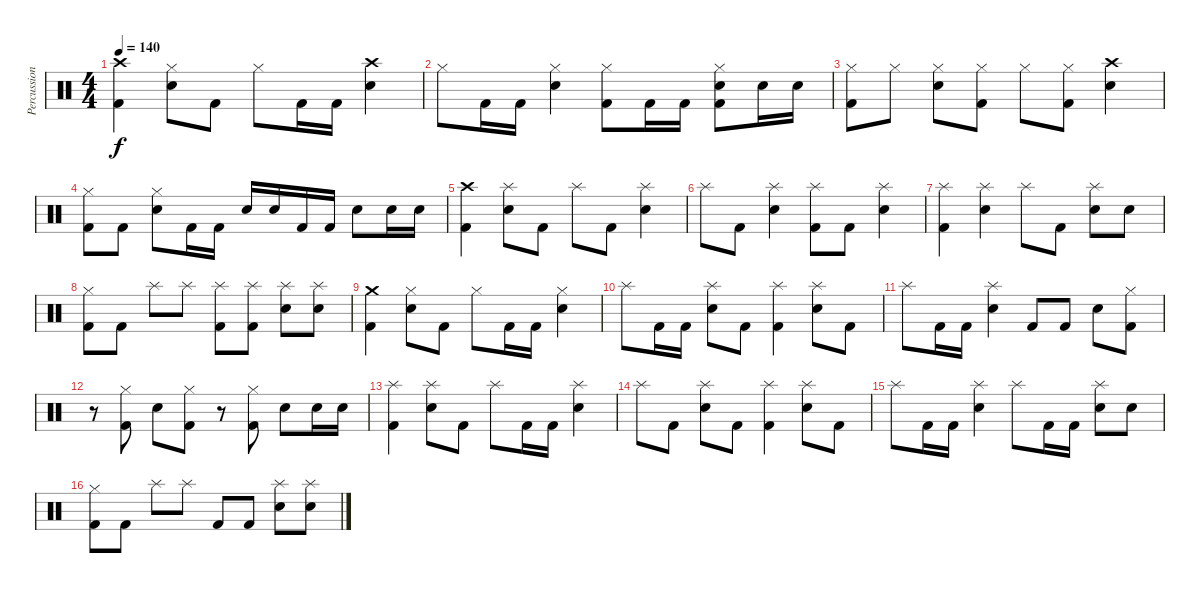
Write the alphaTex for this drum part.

\track ("Percussion" "Percussion") {instrument percussion}
\staff {score}
\articulation defaults
\ts (4 4)
\tempo 140
\clef neutral
\ks c
("Kick (hit) 2" "Crash high (hit)").4{dy f} ("Snare (hit) 2" "Hi-Hat (closed)").8 "Kick (hit) 2".8 "Hi-Hat (closed)".8 "Kick (hit) 2".16 "Kick (hit) 2".16 ("Snare (hit) 2" "Crash high (hit)").4 |
"Hi-Hat (closed)".8 "Kick (hit) 2".16 "Kick (hit) 2".16 ("Snare (hit) 2" "Hi-Hat (closed)").4 ("Kick (hit) 2" "Hi-Hat (closed)").8 "Kick (hit) 2".16 "Kick (hit) 2".16 ("Kick (hit) 2" "Snare (hit) 2" "Hi-Hat (closed)").8 "Snare (hit) 2".16 "Snare (hit) 2".16 |
("Kick (hit) 2" "Hi-Hat (closed)").8 "Hi-Hat (closed)".8 ("Snare (hit) 2" "Hi-Hat (closed)").8 ("Kick (hit) 2" "Hi-Hat (closed)").8 "Hi-Hat (closed)".8 ("Kick (hit) 2" "Hi-Hat (closed)").8 ("Snare (hit) 2" "Crash high (hit)").4 |
("Kick (hit) 2" "Hi-Hat (closed)").8 "Kick (hit) 2".8 ("Snare (hit) 2" "Hi-Hat (closed)").8 "Kick (hit) 2".16 "Kick (hit) 2".16 "Snare (hit) 2".16 "Snare (hit) 2".16 "Kick (hit) 2".16 "Kick (hit) 2".16 "Snare (hit) 2".8 "Snare (hit) 2".16 "Snare (hit) 2".16 |
("Kick (hit) 2" "Crash high (hit)").4 ("Snare (hit) 2" "Splash (hit)").8 "Kick (hit) 2".8 "Splash (hit)".8 "Kick (hit) 2".8 ("Snare (hit) 2" "Splash (hit)").4 |
"Splash (hit)".8 "Kick (hit) 2".8 ("Snare (hit) 2" "Splash (hit)").4 ("Kick (hit) 2" "Splash (hit)").8 "Kick (hit) 2".8 ("Snare (hit) 2" "Splash (hit)").4 |
("Kick (hit) 2" "Splash (hit)").4 ("Snare (hit) 2" "Splash (hit)").4 "Splash (hit)".8 "Kick (hit) 2".8 ("Snare (hit) 2" "Splash (hit)").8 "Snare (hit) 2".8 |
("Kick (hit) 2" "Hi-Hat (closed)").8 "Kick (hit) 2".8 "Splash (hit)".8 "Splash (hit)".8 ("Kick (hit) 2" "Splash (hit)").8 ("Kick (hit) 2" "Splash (hit)").8 ("Snare (hit) 2" "Splash (hit)").8 ("Snare (hit) 2" "Splash (hit)").8 |
("Kick (hit) 2" "Crash medium (hit)").4 ("Snare (hit) 2" "Hi-Hat (closed)").8 "Kick (hit) 2".8 "Hi-Hat (closed)".8 "Kick (hit) 2".16 "Kick (hit) 2".16 ("Snare (hit) 2" "Hi-Hat (closed)").4 |
"Splash (hit)".8 "Kick (hit) 2".16 "Kick (hit) 2".16 ("Snare (hit) 2" "Splash (hit)").8 "Kick (hit) 2".8 ("Kick (hit) 2" "Splash (hit)").4 ("Snare (hit) 2" "Splash (hit)").8 "Kick (hit) 2".8 |
"Splash (hit)".8 "Kick (hit) 2".16 "Kick (hit) 2".16 ("Snare (hit) 2" "Splash (hit)").4 "Kick (hit) 2".8 "Kick (hit) 2".8 "Snare (hit) 2".8 ("Kick (hit) 2" "Hi-Hat (closed)").8 |
r.8 ("Kick (hit) 2" "Hi-Hat (closed)").8 "Snare (hit) 2".8 ("Kick (hit) 2" "Hi-Hat (closed)").8 r.8 ("Kick (hit) 2" "Hi-Hat (closed)").8 "Snare (hit) 2".8 "Snare (hit) 2".16 "Snare (hit) 2".16 |
("Kick (hit) 2" "Splash (hit)").4 ("Snare (hit) 2" "Splash (hit)").8 "Kick (hit) 2".8 "Splash (hit)".8 "Kick (hit) 2".16 "Kick (hit) 2".16 ("Snare (hit) 2" "Splash (hit)").4 |
"Splash (hit)".8 "Kick (hit) 2".8 ("Snare (hit) 2" "Splash (hit)").8 "Kick (hit) 2".8 ("Kick (hit) 2" "Splash (hit)").4 ("Snare (hit) 2" "Splash (hit)").8 "Kick (hit) 2".8 |
"Splash (hit)".8 "Kick (hit) 2".16 "Kick (hit) 2".16 ("Snare (hit) 2" "Splash (hit)").4 "Splash (hit)".8 "Kick (hit) 2".16 "Kick (hit) 2".16 ("Snare (hit) 2" "Splash (hit)").8 "Snare (hit) 2".8 |
("Kick (hit) 2" "Hi-Hat (closed)").8 "Kick (hit) 2".8 "Splash (hit)".8 "Splash (hit)".8 "Kick (hit) 2".8 "Kick (hit) 2".8 ("Snare (hit) 2" "Splash (hit)").8 ("Snare (hit) 2" "Splash (hit)").8
